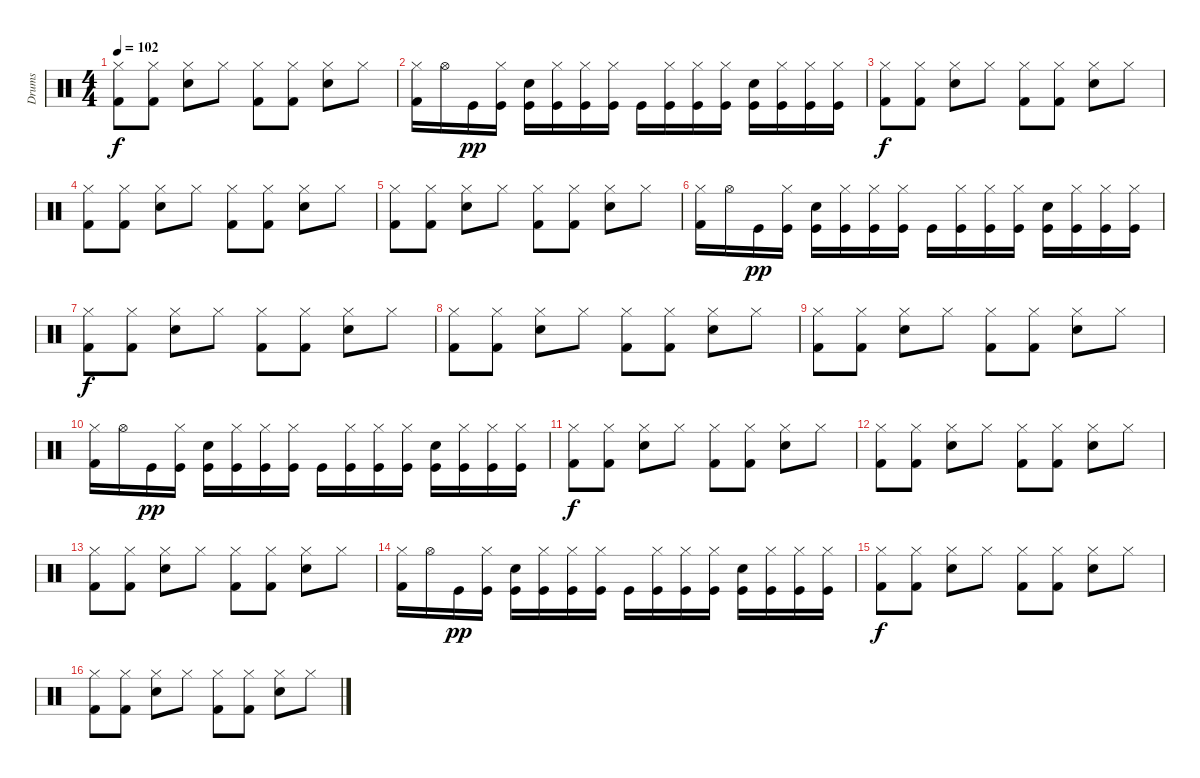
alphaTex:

\track ("Drums" "Drums") {instrument percussion}
\staff {score}
\articulation defaults
\ts (4 4)
\tempo 102
\clef neutral
\ks c
("Kick (hit) 2" "Hi-Hat (closed)").8{dy f} ("Kick (hit) 2" "Hi-Hat (closed)").8 ("Snare (hit) 2" "Hi-Hat (closed)").8 "Hi-Hat (closed)".8 ("Kick (hit) 2" "Hi-Hat (closed)").8 ("Kick (hit) 2" "Hi-Hat (closed)").8 ("Snare (hit) 2" "Hi-Hat (closed)").8 "Hi-Hat (closed)".8 |
("Kick (hit) 2" "Hi-Hat (closed)").16 "Hi-Hat (open)".16 "Kick (hit)".16{dy pp} ("Kick (hit)" "Hi-Hat (closed)").16 ("Kick (hit)" "Snare (hit) 2").16 ("Kick (hit)" "Hi-Hat (closed)").16 ("Kick (hit)" "Hi-Hat (closed)").16 ("Kick (hit)" "Hi-Hat (closed)").16 "Kick (hit)".16 ("Kick (hit)" "Hi-Hat (closed)").16 ("Kick (hit)" "Hi-Hat (closed)").16 ("Kick (hit)" "Hi-Hat (closed)").16 ("Kick (hit)" "Snare (hit) 2").16 ("Kick (hit)" "Hi-Hat (closed)").16 ("Kick (hit)" "Hi-Hat (closed)").16 ("Kick (hit)" "Hi-Hat (closed)").16 |
("Kick (hit) 2" "Hi-Hat (closed)").8{dy f} ("Kick (hit) 2" "Hi-Hat (closed)").8 ("Snare (hit) 2" "Hi-Hat (closed)").8 "Hi-Hat (closed)".8 ("Kick (hit) 2" "Hi-Hat (closed)").8 ("Kick (hit) 2" "Hi-Hat (closed)").8 ("Snare (hit) 2" "Hi-Hat (closed)").8 "Hi-Hat (closed)".8 |
("Kick (hit) 2" "Hi-Hat (closed)").8 ("Kick (hit) 2" "Hi-Hat (closed)").8 ("Snare (hit) 2" "Hi-Hat (closed)").8 "Hi-Hat (closed)".8 ("Kick (hit) 2" "Hi-Hat (closed)").8 ("Kick (hit) 2" "Hi-Hat (closed)").8 ("Snare (hit) 2" "Hi-Hat (closed)").8 "Hi-Hat (closed)".8 |
("Kick (hit) 2" "Hi-Hat (closed)").8 ("Kick (hit) 2" "Hi-Hat (closed)").8 ("Snare (hit) 2" "Hi-Hat (closed)").8 "Hi-Hat (closed)".8 ("Kick (hit) 2" "Hi-Hat (closed)").8 ("Kick (hit) 2" "Hi-Hat (closed)").8 ("Snare (hit) 2" "Hi-Hat (closed)").8 "Hi-Hat (closed)".8 |
("Kick (hit) 2" "Hi-Hat (closed)").16 "Hi-Hat (open)".16 "Kick (hit)".16{dy pp} ("Kick (hit)" "Hi-Hat (closed)").16 ("Kick (hit)" "Snare (hit) 2").16 ("Kick (hit)" "Hi-Hat (closed)").16 ("Kick (hit)" "Hi-Hat (closed)").16 ("Kick (hit)" "Hi-Hat (closed)").16 "Kick (hit)".16 ("Kick (hit)" "Hi-Hat (closed)").16 ("Kick (hit)" "Hi-Hat (closed)").16 ("Kick (hit)" "Hi-Hat (closed)").16 ("Kick (hit)" "Snare (hit) 2").16 ("Kick (hit)" "Hi-Hat (closed)").16 ("Kick (hit)" "Hi-Hat (closed)").16 ("Kick (hit)" "Hi-Hat (closed)").16 |
("Kick (hit) 2" "Hi-Hat (closed)").8{dy f} ("Kick (hit) 2" "Hi-Hat (closed)").8 ("Snare (hit) 2" "Hi-Hat (closed)").8 "Hi-Hat (closed)".8 ("Kick (hit) 2" "Hi-Hat (closed)").8 ("Kick (hit) 2" "Hi-Hat (closed)").8 ("Snare (hit) 2" "Hi-Hat (closed)").8 "Hi-Hat (closed)".8 |
("Kick (hit) 2" "Hi-Hat (closed)").8 ("Kick (hit) 2" "Hi-Hat (closed)").8 ("Snare (hit) 2" "Hi-Hat (closed)").8 "Hi-Hat (closed)".8 ("Kick (hit) 2" "Hi-Hat (closed)").8 ("Kick (hit) 2" "Hi-Hat (closed)").8 ("Snare (hit) 2" "Hi-Hat (closed)").8 "Hi-Hat (closed)".8 |
("Kick (hit) 2" "Hi-Hat (closed)").8 ("Kick (hit) 2" "Hi-Hat (closed)").8 ("Snare (hit) 2" "Hi-Hat (closed)").8 "Hi-Hat (closed)".8 ("Kick (hit) 2" "Hi-Hat (closed)").8 ("Kick (hit) 2" "Hi-Hat (closed)").8 ("Snare (hit) 2" "Hi-Hat (closed)").8 "Hi-Hat (closed)".8 |
("Kick (hit) 2" "Hi-Hat (closed)").16 "Hi-Hat (open)".16 "Kick (hit)".16{dy pp} ("Kick (hit)" "Hi-Hat (closed)").16 ("Kick (hit)" "Snare (hit) 2").16 ("Kick (hit)" "Hi-Hat (closed)").16 ("Kick (hit)" "Hi-Hat (closed)").16 ("Kick (hit)" "Hi-Hat (closed)").16 "Kick (hit)".16 ("Kick (hit)" "Hi-Hat (closed)").16 ("Kick (hit)" "Hi-Hat (closed)").16 ("Kick (hit)" "Hi-Hat (closed)").16 ("Kick (hit)" "Snare (hit) 2").16 ("Kick (hit)" "Hi-Hat (closed)").16 ("Kick (hit)" "Hi-Hat (closed)").16 ("Kick (hit)" "Hi-Hat (closed)").16 |
("Kick (hit) 2" "Hi-Hat (closed)").8{dy f} ("Kick (hit) 2" "Hi-Hat (closed)").8 ("Snare (hit) 2" "Hi-Hat (closed)").8 "Hi-Hat (closed)".8 ("Kick (hit) 2" "Hi-Hat (closed)").8 ("Kick (hit) 2" "Hi-Hat (closed)").8 ("Snare (hit) 2" "Hi-Hat (closed)").8 "Hi-Hat (closed)".8 |
("Kick (hit) 2" "Hi-Hat (closed)").8 ("Kick (hit) 2" "Hi-Hat (closed)").8 ("Snare (hit) 2" "Hi-Hat (closed)").8 "Hi-Hat (closed)".8 ("Kick (hit) 2" "Hi-Hat (closed)").8 ("Kick (hit) 2" "Hi-Hat (closed)").8 ("Snare (hit) 2" "Hi-Hat (closed)").8 "Hi-Hat (closed)".8 |
("Kick (hit) 2" "Hi-Hat (closed)").8 ("Kick (hit) 2" "Hi-Hat (closed)").8 ("Snare (hit) 2" "Hi-Hat (closed)").8 "Hi-Hat (closed)".8 ("Kick (hit) 2" "Hi-Hat (closed)").8 ("Kick (hit) 2" "Hi-Hat (closed)").8 ("Snare (hit) 2" "Hi-Hat (closed)").8 "Hi-Hat (closed)".8 |
("Kick (hit) 2" "Hi-Hat (closed)").16 "Hi-Hat (open)".16 "Kick (hit)".16{dy pp} ("Kick (hit)" "Hi-Hat (closed)").16 ("Kick (hit)" "Snare (hit) 2").16 ("Kick (hit)" "Hi-Hat (closed)").16 ("Kick (hit)" "Hi-Hat (closed)").16 ("Kick (hit)" "Hi-Hat (closed)").16 "Kick (hit)".16 ("Kick (hit)" "Hi-Hat (closed)").16 ("Kick (hit)" "Hi-Hat (closed)").16 ("Kick (hit)" "Hi-Hat (closed)").16 ("Kick (hit)" "Snare (hit) 2").16 ("Kick (hit)" "Hi-Hat (closed)").16 ("Kick (hit)" "Hi-Hat (closed)").16 ("Kick (hit)" "Hi-Hat (closed)").16 |
("Kick (hit) 2" "Hi-Hat (closed)").8{dy f} ("Kick (hit) 2" "Hi-Hat (closed)").8 ("Snare (hit) 2" "Hi-Hat (closed)").8 "Hi-Hat (closed)".8 ("Kick (hit) 2" "Hi-Hat (closed)").8 ("Kick (hit) 2" "Hi-Hat (closed)").8 ("Snare (hit) 2" "Hi-Hat (closed)").8 "Hi-Hat (closed)".8 |
("Kick (hit) 2" "Hi-Hat (closed)").8 ("Kick (hit) 2" "Hi-Hat (closed)").8 ("Snare (hit) 2" "Hi-Hat (closed)").8 "Hi-Hat (closed)".8 ("Kick (hit) 2" "Hi-Hat (closed)").8 ("Kick (hit) 2" "Hi-Hat (closed)").8 ("Snare (hit) 2" "Hi-Hat (closed)").8 "Hi-Hat (closed)".8
